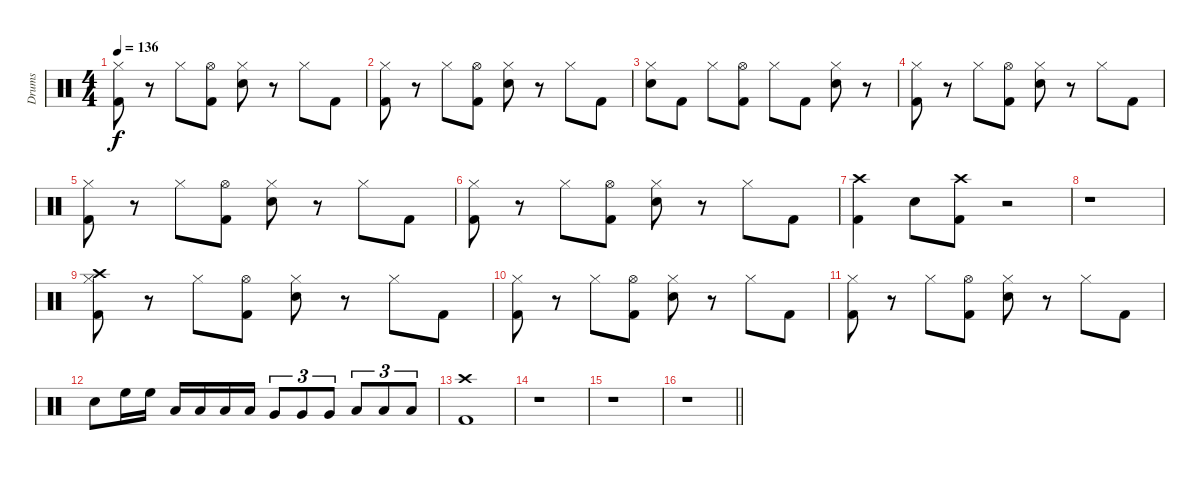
\track ("Drums" "Drums") {instrument percussion}
\staff {score}
\articulation defaults
\ts (4 4)
\tempo 136
\clef neutral
\ks c
("Kick (hit) 2" "Hi-Hat (closed)").8{dy f} r.8 "Hi-Hat (closed)".8 ("Kick (hit) 2" "Hi-Hat (open)").8 ("Snare (hit) 2" "Hi-Hat (closed)").8 r.8 "Hi-Hat (closed)".8 "Kick (hit) 2".8 |
("Kick (hit) 2" "Hi-Hat (closed)").8 r.8 "Hi-Hat (closed)".8 ("Kick (hit) 2" "Hi-Hat (open)").8 ("Snare (hit) 2" "Hi-Hat (closed)").8 r.8 "Hi-Hat (closed)".8 "Kick (hit) 2".8 |
("Snare (hit) 2" "Hi-Hat (closed)").8 "Kick (hit) 2".8 "Hi-Hat (closed)".8 ("Kick (hit) 2" "Hi-Hat (open)").8 "Hi-Hat (closed)".8 "Kick (hit) 2".8 ("Snare (hit) 2" "Hi-Hat (closed)").8 r.8 |
("Kick (hit) 2" "Hi-Hat (closed)").8 r.8 "Hi-Hat (closed)".8 ("Kick (hit) 2" "Hi-Hat (open)").8 ("Snare (hit) 2" "Hi-Hat (closed)").8 r.8 "Hi-Hat (closed)".8 "Kick (hit) 2".8 |
("Kick (hit) 2" "Hi-Hat (closed)").8 r.8 "Hi-Hat (closed)".8 ("Kick (hit) 2" "Hi-Hat (open)").8 ("Snare (hit) 2" "Hi-Hat (closed)").8 r.8 "Hi-Hat (closed)".8 "Kick (hit) 2".8 |
("Kick (hit) 2" "Hi-Hat (closed)").8 r.8 "Hi-Hat (closed)".8 ("Kick (hit) 2" "Hi-Hat (open)").8 ("Snare (hit) 2" "Hi-Hat (closed)").8 r.8 "Hi-Hat (closed)".8 "Kick (hit) 2".8 |
("Kick (hit) 2" "Crash high (hit)").4 "Snare (hit) 2".8 ("Kick (hit) 2" "Crash high (hit)").8 r.2 |
r.1 |
("Kick (hit) 2" "Hi-Hat (closed)" "Crash high (hit)").8 r.8 "Hi-Hat (closed)".8 ("Kick (hit) 2" "Hi-Hat (open)").8 ("Snare (hit) 2" "Hi-Hat (closed)").8 r.8 "Hi-Hat (closed)".8 "Kick (hit) 2".8 |
("Kick (hit) 2" "Hi-Hat (closed)").8 r.8 "Hi-Hat (closed)".8 ("Kick (hit) 2" "Hi-Hat (open)").8 ("Snare (hit) 2" "Hi-Hat (closed)").8 r.8 "Hi-Hat (closed)".8 "Kick (hit) 2".8 |
("Kick (hit) 2" "Hi-Hat (closed)").8 r.8 "Hi-Hat (closed)".8 ("Kick (hit) 2" "Hi-Hat (open)").8 ("Snare (hit) 2" "Hi-Hat (closed)").8 r.8 "Hi-Hat (closed)".8 "Kick (hit) 2".8 |
"Snare (hit) 2".8 "High Floor Tom (hit)".16 "High Floor Tom (hit)".16 "Low Tom (hit)".16 "Low Tom (hit)".16 "Low Tom (hit)".16 "Low Tom (hit)".16 "Very Low Tom (hit)".8{tu (3 2)} "Very Low Tom (hit)".8{tu (3 2)} "Very Low Tom (hit)".8{tu (3 2)} "Low Floor Tom (hit)".8{tu (3 2)} "Low Floor Tom (hit)".8{tu (3 2)} "Low Floor Tom (hit)".8{tu (3 2)} |
("Kick (hit) 2" "Crash high (hit)").1 |
r.1 |
r.1 |
\barLineRight lightlight
r.1
